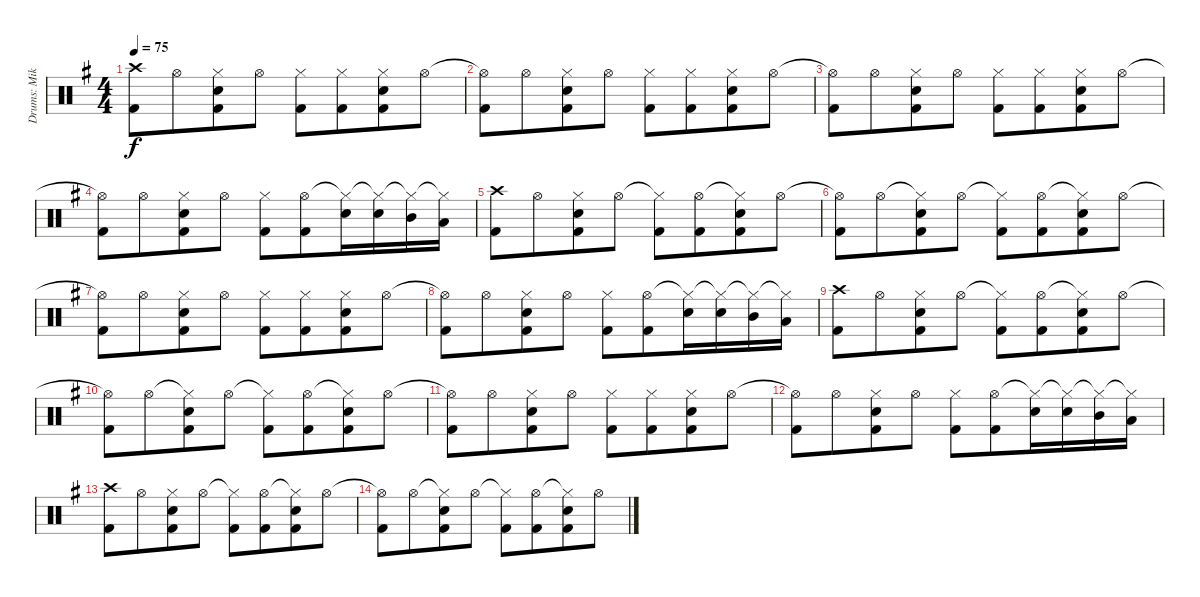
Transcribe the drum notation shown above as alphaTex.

\track ("Drums: Mike" "Drums: Mik") {instrument percussion}
\staff {score}
\articulation defaults
\ts (4 4)
\tempo 75
\clef neutral
\ks g
("Crash high (hit)" "Kick (hit) 2").8{dy f} "Hi-Hat (open)".8{beam merge} ("Hi-Hat (closed)" "Electric Snare (hit)" "Kick (hit) 2").8 "Hi-Hat (open)".8 ("Hi-Hat (closed)" "Kick (hit) 2").8 ("Hi-Hat (closed)" "Kick (hit) 2").8{beam merge} ("Hi-Hat (closed)" "Electric Snare (hit)" "Kick (hit) 2").8 "Hi-Hat (open)".8 |
("Hi-Hat (open)"{t} "Kick (hit) 2").8 "Hi-Hat (open)".8{beam merge} ("Hi-Hat (closed)" "Electric Snare (hit)" "Kick (hit) 2").8 "Hi-Hat (open)".8 ("Hi-Hat (closed)" "Kick (hit) 2").8 ("Hi-Hat (closed)" "Kick (hit) 2").8{beam merge} ("Hi-Hat (closed)" "Electric Snare (hit)" "Kick (hit) 2").8 "Hi-Hat (open)".8 |
("Hi-Hat (open)"{t} "Kick (hit) 2").8 "Hi-Hat (open)".8{beam merge} ("Hi-Hat (closed)" "Electric Snare (hit)" "Kick (hit) 2").8 "Hi-Hat (open)".8 ("Hi-Hat (closed)" "Kick (hit) 2").8 ("Hi-Hat (closed)" "Kick (hit) 2").8{beam merge} ("Hi-Hat (closed)" "Electric Snare (hit)" "Kick (hit) 2").8 "Hi-Hat (open)".8 |
("Hi-Hat (open)"{t} "Kick (hit) 2").8 "Hi-Hat (open)".8{beam merge} ("Hi-Hat (closed)" "Electric Snare (hit)" "Kick (hit) 2").8 "Hi-Hat (open)".8 ("Hi-Hat (closed)" "Kick (hit) 2").8 ("Hi-Hat (open)" "Kick (hit) 2").8{beam merge} ("Hi-Hat (closed)"{t} "Electric Snare (hit)").16{beam merge} ("Hi-Hat (closed)"{t} "Electric Snare (hit)").16{beam merge} ("Hi-Hat (closed)"{t} "Mid Tom (hit)").16{beam merge} ("Hi-Hat (closed)"{t} "Low Tom (hit)").16 |
("Crash high (hit)" "Kick (hit) 2").8 "Hi-Hat (open)".8{beam merge} ("Hi-Hat (closed)" "Electric Snare (hit)" "Kick (hit) 2").8 "Hi-Hat (open)".8 ("Hi-Hat (closed)"{t} "Kick (hit) 2").8 ("Hi-Hat (open)" "Kick (hit) 2").8{beam merge} ("Hi-Hat (closed)"{t} "Electric Snare (hit)" "Kick (hit) 2").8 "Hi-Hat (open)".8 |
("Hi-Hat (open)"{t} "Kick (hit) 2").8 "Hi-Hat (open)".8{beam merge} ("Hi-Hat (closed)"{t} "Electric Snare (hit)" "Kick (hit) 2").8 "Hi-Hat (open)".8 ("Hi-Hat (closed)"{t} "Kick (hit) 2").8 ("Hi-Hat (open)" "Kick (hit) 2").8{beam merge} ("Hi-Hat (closed)"{t} "Electric Snare (hit)" "Kick (hit) 2").8 "Hi-Hat (open)".8 |
("Hi-Hat (open)"{t} "Kick (hit) 2").8 "Hi-Hat (open)".8{beam merge} ("Hi-Hat (closed)" "Electric Snare (hit)" "Kick (hit) 2").8 "Hi-Hat (open)".8 ("Hi-Hat (closed)" "Kick (hit) 2").8 ("Hi-Hat (closed)" "Kick (hit) 2").8{beam merge} ("Hi-Hat (closed)" "Electric Snare (hit)" "Kick (hit) 2").8 "Hi-Hat (open)".8 |
("Hi-Hat (open)"{t} "Kick (hit) 2").8 "Hi-Hat (open)".8{beam merge} ("Hi-Hat (closed)" "Electric Snare (hit)" "Kick (hit) 2").8 "Hi-Hat (open)".8 ("Hi-Hat (closed)" "Kick (hit) 2").8 ("Hi-Hat (open)" "Kick (hit) 2").8{beam merge} ("Hi-Hat (closed)"{t} "Electric Snare (hit)").16{beam merge} ("Hi-Hat (closed)"{t} "Electric Snare (hit)").16{beam merge} ("Hi-Hat (closed)"{t} "Mid Tom (hit)").16{beam merge} ("Hi-Hat (closed)"{t} "Low Tom (hit)").16 |
("Crash high (hit)" "Kick (hit) 2").8 "Hi-Hat (open)".8{beam merge} ("Hi-Hat (closed)" "Electric Snare (hit)" "Kick (hit) 2").8 "Hi-Hat (open)".8 ("Hi-Hat (closed)"{t} "Kick (hit) 2").8 ("Hi-Hat (open)" "Kick (hit) 2").8{beam merge} ("Hi-Hat (closed)"{t} "Electric Snare (hit)" "Kick (hit) 2").8 "Hi-Hat (open)".8 |
("Hi-Hat (open)"{t} "Kick (hit) 2").8 "Hi-Hat (open)".8{beam merge} ("Hi-Hat (closed)"{t} "Electric Snare (hit)" "Kick (hit) 2").8 "Hi-Hat (open)".8 ("Hi-Hat (closed)"{t} "Kick (hit) 2").8 ("Hi-Hat (open)" "Kick (hit) 2").8{beam merge} ("Hi-Hat (closed)"{t} "Electric Snare (hit)" "Kick (hit) 2").8 "Hi-Hat (open)".8 |
("Hi-Hat (open)"{t} "Kick (hit) 2").8 "Hi-Hat (open)".8{beam merge} ("Hi-Hat (closed)" "Electric Snare (hit)" "Kick (hit) 2").8 "Hi-Hat (open)".8 ("Hi-Hat (closed)" "Kick (hit) 2").8 ("Hi-Hat (closed)" "Kick (hit) 2").8{beam merge} ("Hi-Hat (closed)" "Electric Snare (hit)" "Kick (hit) 2").8 "Hi-Hat (open)".8 |
("Hi-Hat (open)"{t} "Kick (hit) 2").8 "Hi-Hat (open)".8{beam merge} ("Hi-Hat (closed)" "Electric Snare (hit)" "Kick (hit) 2").8 "Hi-Hat (open)".8 ("Hi-Hat (closed)" "Kick (hit) 2").8 ("Hi-Hat (open)" "Kick (hit) 2").8{beam merge} ("Hi-Hat (closed)"{t} "Electric Snare (hit)").16{beam merge} ("Hi-Hat (closed)"{t} "Electric Snare (hit)").16{beam merge} ("Hi-Hat (closed)"{t} "Mid Tom (hit)").16{beam merge} ("Hi-Hat (closed)"{t} "Low Tom (hit)").16 |
("Crash high (hit)" "Kick (hit) 2").8 "Hi-Hat (open)".8{beam merge} ("Hi-Hat (closed)" "Electric Snare (hit)" "Kick (hit) 2").8 "Hi-Hat (open)".8 ("Hi-Hat (closed)"{t} "Kick (hit) 2").8 ("Hi-Hat (open)" "Kick (hit) 2").8{beam merge} ("Hi-Hat (closed)"{t} "Electric Snare (hit)" "Kick (hit) 2").8 "Hi-Hat (open)".8 |
("Hi-Hat (open)"{t} "Kick (hit) 2").8 "Hi-Hat (open)".8{beam merge} ("Hi-Hat (closed)"{t} "Electric Snare (hit)" "Kick (hit) 2").8 "Hi-Hat (open)".8 ("Hi-Hat (closed)"{t} "Kick (hit) 2").8 ("Hi-Hat (open)" "Kick (hit) 2").8{beam merge} ("Hi-Hat (closed)"{t} "Electric Snare (hit)" "Kick (hit) 2").8 "Hi-Hat (open)".8
